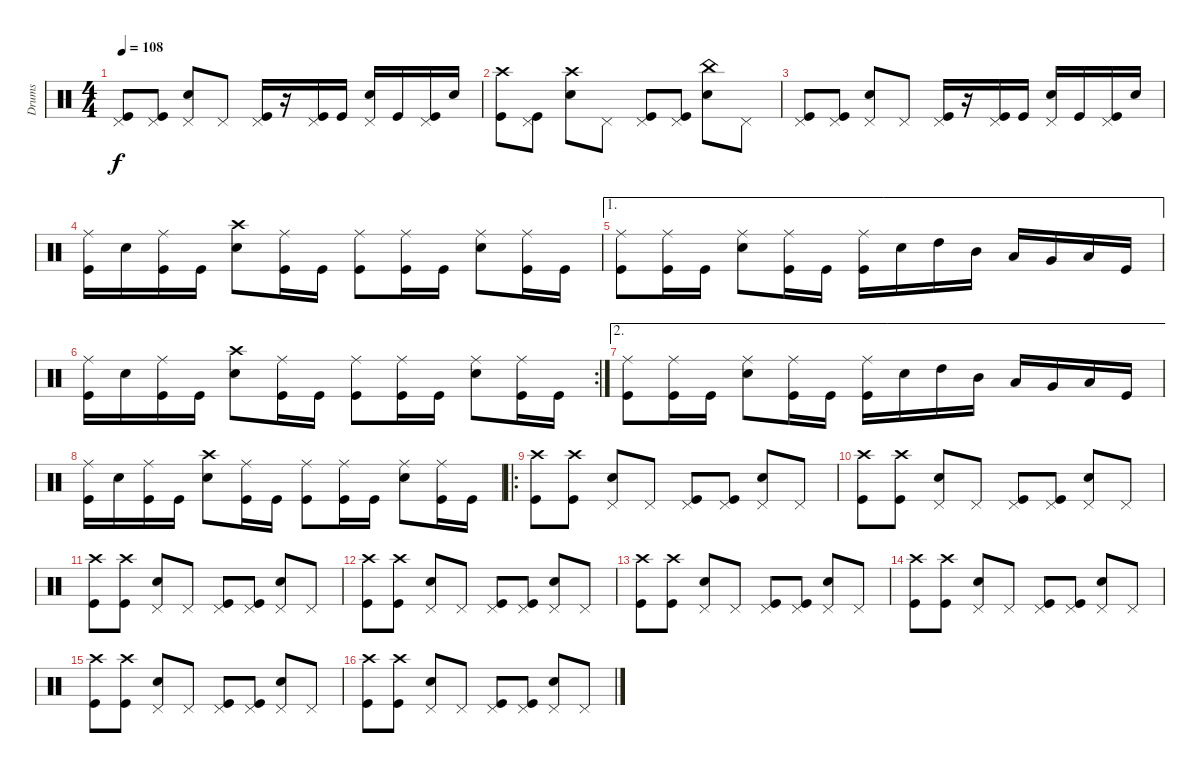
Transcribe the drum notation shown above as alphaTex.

\track ("Drums" "Drums") {instrument percussion}
\staff {score}
\articulation defaults
\ts (4 4)
\tempo 108
\clef neutral
\ks c
("Pedal Hi-Hat (hit)" "Kick (hit)").8{dy f} ("Pedal Hi-Hat (hit)" "Kick (hit)").8 ("Pedal Hi-Hat (hit)" "Electric Snare (hit)").8 "Pedal Hi-Hat (hit)".8 ("Pedal Hi-Hat (hit)" "Kick (hit)").16 r.16 ("Pedal Hi-Hat (hit)" "Kick (hit)").16 "Kick (hit)".16 ("Pedal Hi-Hat (hit)" "Electric Snare (hit)").16 "Kick (hit)".16 ("Pedal Hi-Hat (hit)" "Kick (hit)").16 "Electric Snare (hit)".16 |
("Crash high (hit)" "Kick (hit)").8 ("Pedal Hi-Hat (hit)" "Kick (hit)").8 ("Crash high (hit)" "Electric Snare (hit)").8 "Pedal Hi-Hat (hit)".8 ("Pedal Hi-Hat (hit)" "Kick (hit)").8 ("Pedal Hi-Hat (hit)" "Kick (hit)").8 ("China (hit)" "Electric Snare (hit)").8 "Pedal Hi-Hat (hit)".8 |
("Pedal Hi-Hat (hit)" "Kick (hit)").8 ("Pedal Hi-Hat (hit)" "Kick (hit)").8 ("Pedal Hi-Hat (hit)" "Electric Snare (hit)").8 "Pedal Hi-Hat (hit)".8 ("Pedal Hi-Hat (hit)" "Kick (hit)").16 r.16 ("Pedal Hi-Hat (hit)" "Kick (hit)").16 "Kick (hit)".16 ("Pedal Hi-Hat (hit)" "Electric Snare (hit)").16 "Kick (hit)".16 ("Pedal Hi-Hat (hit)" "Kick (hit)").16 "Electric Snare (hit)".16 |
("Ride (middle)" "Kick (hit)").16 "Electric Snare (hit)".16 ("Ride (middle)" "Kick (hit)").16 "Kick (hit)".16 ("Crash high (hit)" "Electric Snare (hit)").8 ("Ride (middle)" "Kick (hit)").16 "Kick (hit)".16 ("Ride (middle)" "Kick (hit)").8 ("Ride (middle)" "Kick (hit)").16 "Kick (hit)".16 ("Ride (middle)" "Electric Snare (hit)").8 ("Ride (middle)" "Kick (hit)").16 "Kick (hit)".16 |
\ae 1
("Ride (middle)" "Kick (hit)").8 ("Ride (middle)" "Kick (hit)").16 "Kick (hit)".16 ("Ride (middle)" "Electric Snare (hit)").8 ("Ride (middle)" "Kick (hit)").16 "Kick (hit)".16 ("Ride (middle)" "Kick (hit)").16 "Electric Snare (hit)".16 "High Tom (hit)".16 "Mid Tom (hit)".16 "Low Tom (hit)".16 "Very Low Tom (hit)".16 "Low Floor Tom (hit)".16 "Kick (hit)".16 |
\rc 2
("Ride (middle)" "Kick (hit)").16 "Electric Snare (hit)".16 ("Ride (middle)" "Kick (hit)").16 "Kick (hit)".16 ("Crash high (hit)" "Electric Snare (hit)").8 ("Ride (middle)" "Kick (hit)").16 "Kick (hit)".16 ("Ride (middle)" "Kick (hit)").8 ("Ride (middle)" "Kick (hit)").16 "Kick (hit)".16 ("Ride (middle)" "Electric Snare (hit)").8 ("Ride (middle)" "Kick (hit)").16 "Kick (hit)".16 |
\ae 2
("Ride (middle)" "Kick (hit)").8 ("Ride (middle)" "Kick (hit)").16 "Kick (hit)".16 ("Ride (middle)" "Electric Snare (hit)").8 ("Ride (middle)" "Kick (hit)").16 "Kick (hit)".16 ("Ride (middle)" "Kick (hit)").16 "Electric Snare (hit)".16 "High Tom (hit)".16 "Mid Tom (hit)".16 "Low Tom (hit)".16 "Very Low Tom (hit)".16 "Low Floor Tom (hit)".16 "Kick (hit)".16 |
("Ride (middle)" "Kick (hit)").16 "Electric Snare (hit)".16 ("Ride (middle)" "Kick (hit)").16 "Kick (hit)".16 ("Crash high (hit)" "Electric Snare (hit)").8 ("Ride (middle)" "Kick (hit)").16 "Kick (hit)".16 ("Ride (middle)" "Kick (hit)").8 ("Ride (middle)" "Kick (hit)").16 "Kick (hit)".16 ("Ride (middle)" "Electric Snare (hit)").8 ("Ride (middle)" "Kick (hit)").16 "Kick (hit)".16 |
\ro
("Crash high (hit)" "Kick (hit)").8 ("Crash high (hit)" "Kick (hit)").8 ("Pedal Hi-Hat (hit)" "Electric Snare (hit)").8 "Pedal Hi-Hat (hit)".8 ("Pedal Hi-Hat (hit)" "Kick (hit)").8 ("Pedal Hi-Hat (hit)" "Kick (hit)").8 ("Pedal Hi-Hat (hit)" "Electric Snare (hit)").8 "Pedal Hi-Hat (hit)".8 |
("Crash high (hit)" "Kick (hit)").8 ("Crash high (hit)" "Kick (hit)").8 ("Pedal Hi-Hat (hit)" "Electric Snare (hit)").8 "Pedal Hi-Hat (hit)".8 ("Pedal Hi-Hat (hit)" "Kick (hit)").8 ("Pedal Hi-Hat (hit)" "Kick (hit)").8 ("Pedal Hi-Hat (hit)" "Electric Snare (hit)").8 "Pedal Hi-Hat (hit)".8 |
("Crash high (hit)" "Kick (hit)").8 ("Crash high (hit)" "Kick (hit)").8 ("Pedal Hi-Hat (hit)" "Electric Snare (hit)").8 "Pedal Hi-Hat (hit)".8 ("Pedal Hi-Hat (hit)" "Kick (hit)").8 ("Pedal Hi-Hat (hit)" "Kick (hit)").8 ("Pedal Hi-Hat (hit)" "Electric Snare (hit)").8 "Pedal Hi-Hat (hit)".8 |
("Crash high (hit)" "Kick (hit)").8 ("Crash high (hit)" "Kick (hit)").8 ("Pedal Hi-Hat (hit)" "Electric Snare (hit)").8 "Pedal Hi-Hat (hit)".8 ("Pedal Hi-Hat (hit)" "Kick (hit)").8 ("Pedal Hi-Hat (hit)" "Kick (hit)").8 ("Pedal Hi-Hat (hit)" "Electric Snare (hit)").8 "Pedal Hi-Hat (hit)".8 |
("Crash high (hit)" "Kick (hit)").8 ("Crash high (hit)" "Kick (hit)").8 ("Pedal Hi-Hat (hit)" "Electric Snare (hit)").8 "Pedal Hi-Hat (hit)".8 ("Pedal Hi-Hat (hit)" "Kick (hit)").8 ("Pedal Hi-Hat (hit)" "Kick (hit)").8 ("Pedal Hi-Hat (hit)" "Electric Snare (hit)").8 "Pedal Hi-Hat (hit)".8 |
("Crash high (hit)" "Kick (hit)").8 ("Crash high (hit)" "Kick (hit)").8 ("Pedal Hi-Hat (hit)" "Electric Snare (hit)").8 "Pedal Hi-Hat (hit)".8 ("Pedal Hi-Hat (hit)" "Kick (hit)").8 ("Pedal Hi-Hat (hit)" "Kick (hit)").8 ("Pedal Hi-Hat (hit)" "Electric Snare (hit)").8 "Pedal Hi-Hat (hit)".8 |
("Crash high (hit)" "Kick (hit)").8 ("Crash high (hit)" "Kick (hit)").8 ("Pedal Hi-Hat (hit)" "Electric Snare (hit)").8 "Pedal Hi-Hat (hit)".8 ("Pedal Hi-Hat (hit)" "Kick (hit)").8 ("Pedal Hi-Hat (hit)" "Kick (hit)").8 ("Pedal Hi-Hat (hit)" "Electric Snare (hit)").8 "Pedal Hi-Hat (hit)".8 |
("Crash high (hit)" "Kick (hit)").8 ("Crash high (hit)" "Kick (hit)").8 ("Pedal Hi-Hat (hit)" "Electric Snare (hit)").8 "Pedal Hi-Hat (hit)".8 ("Pedal Hi-Hat (hit)" "Kick (hit)").8 ("Pedal Hi-Hat (hit)" "Kick (hit)").8 ("Pedal Hi-Hat (hit)" "Electric Snare (hit)").8 "Pedal Hi-Hat (hit)".8
